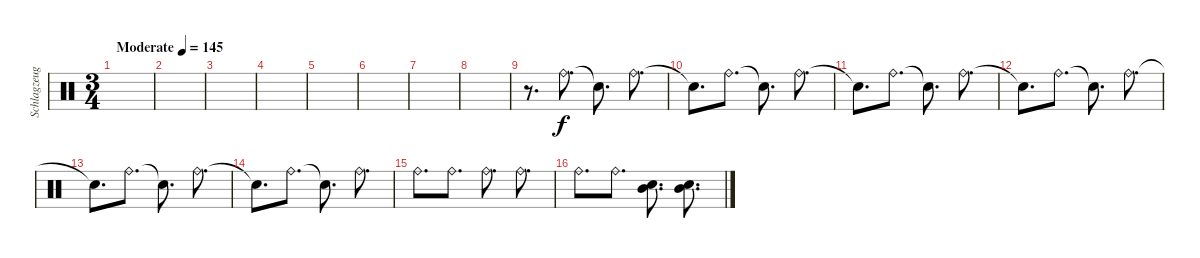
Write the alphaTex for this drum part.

\track ("Schlagzeug" "Schlagzeug") {instrument percussion}
\staff {score}
\articulation defaults
\ts (3 4)
\tempo (145 "Moderate")
\clef neutral
\ks c
|
|
|
|
|
|
|
|
r.8{d} "Ride (bell)".8{d} "Snare (hit)"{t}.8{d} "Ride (bell)".8{d} |
"Snare (hit)"{t}.8{d} "Ride (bell)".8{d} "Snare (hit)"{t}.8{d} "Ride (bell)".8{d} |
"Snare (hit)"{t}.8{d} "Ride (bell)".8{d} "Snare (hit)"{t}.8{d} "Ride (bell)".8{d} |
"Snare (hit)"{t}.8{d} "Ride (bell)".8{d} "Snare (hit)"{t}.8{d} "Ride (bell)".8{d} |
"Snare (hit)"{t}.8{d} "Ride (bell)".8{d} "Snare (hit)"{t}.8{d} "Ride (bell)".8{d} |
"Snare (hit)"{t}.8{d} "Ride (bell)".8{d} "Snare (hit)"{t}.8{d} "Ride (bell)".8{d} |
"Ride (bell)".8{d} "Ride (bell)".8{d} "Ride (bell)".8{d} "Ride (bell)".8{d} |
"Ride (bell)".8{d} "Ride (bell)".8{d} ("Mid Tom (hit)" "Snare (hit) 2").8{d} ("Mid Tom (hit)" "Snare (hit) 2").8{d}
